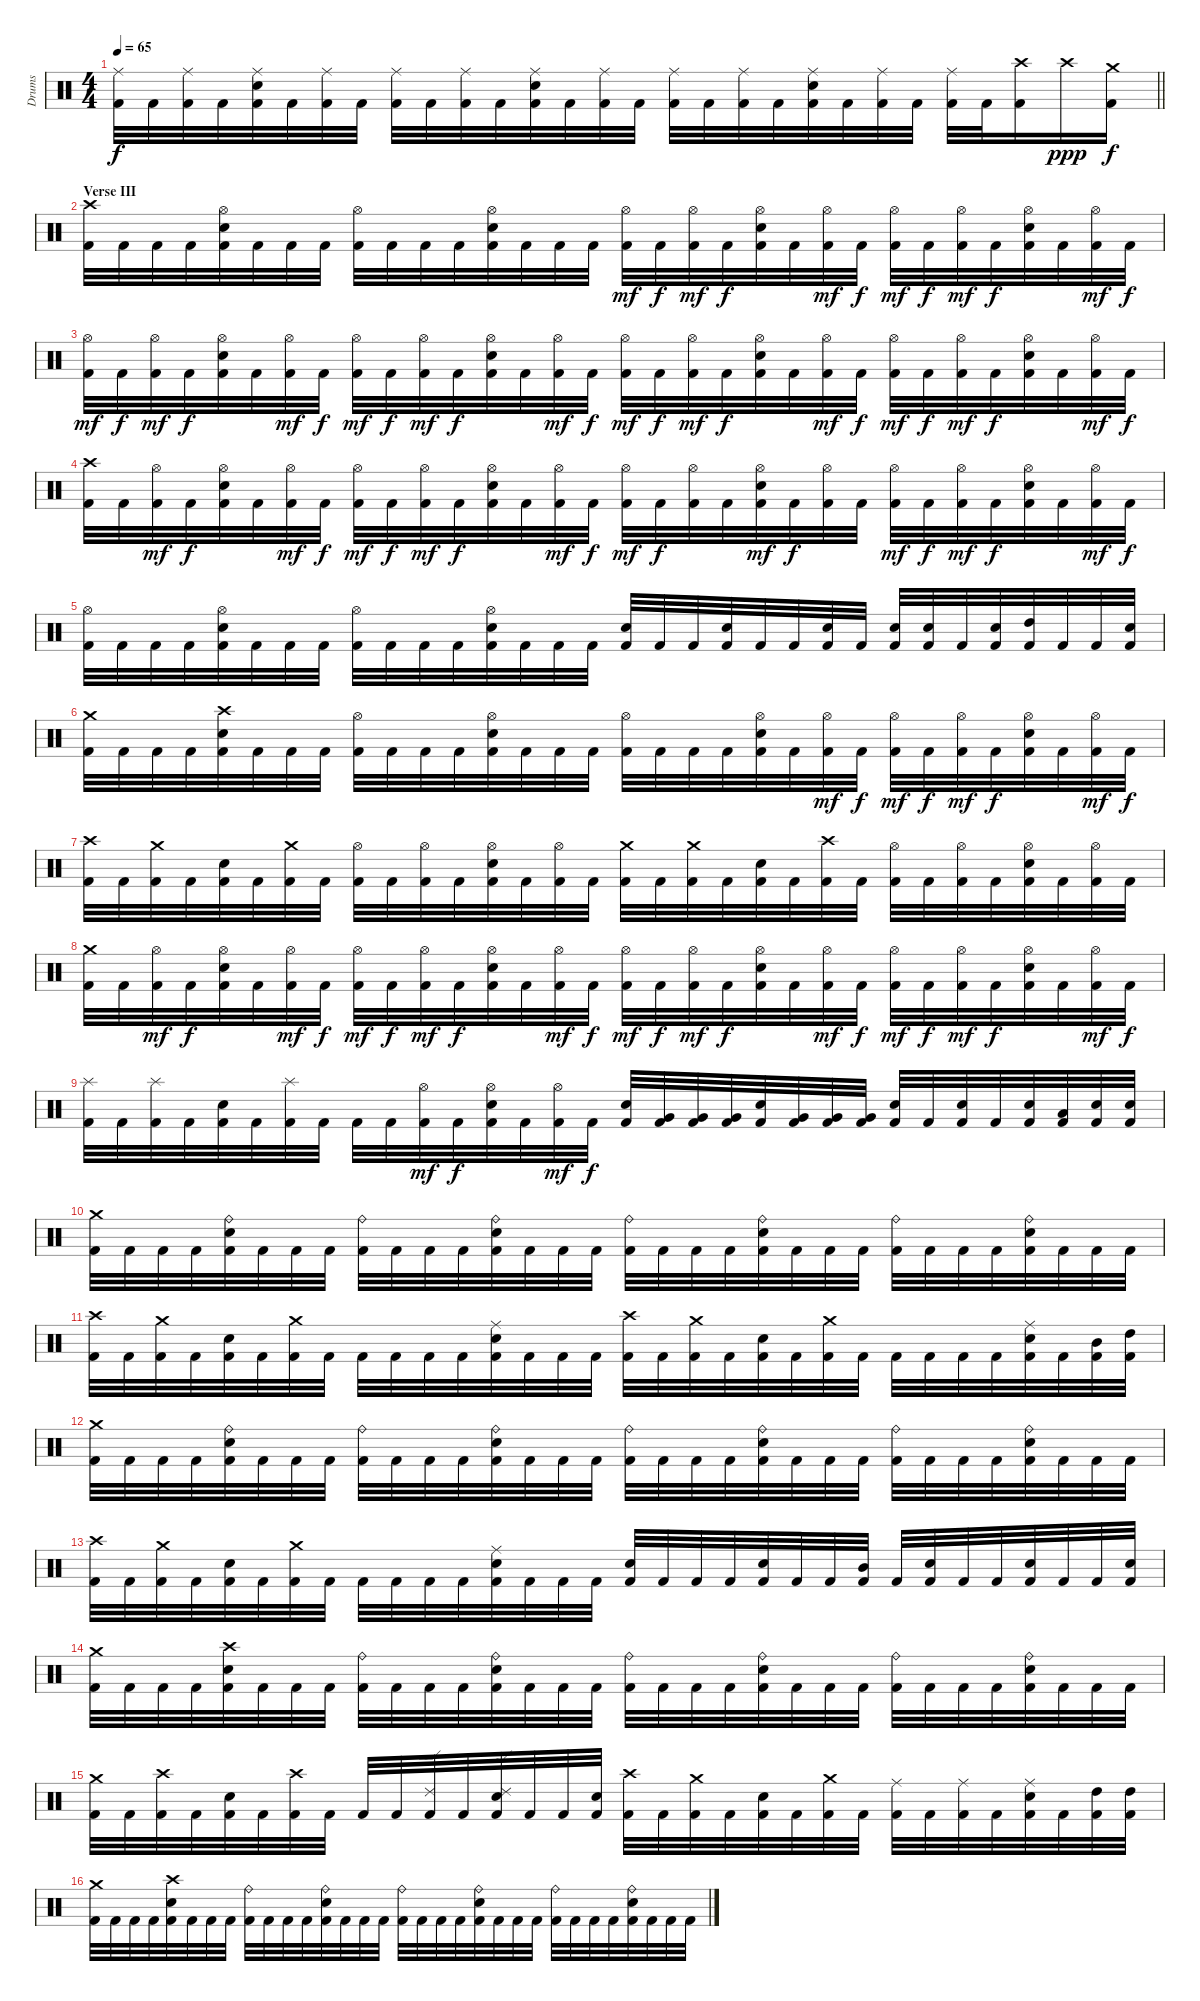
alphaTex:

\track ("Drums" "Drums") {instrument percussion}
\staff {score}
\articulation defaults
\ts (4 4)
\tempo 65
\clef neutral
\barLineRight lightlight
\ks c
("Ride (middle)" "Kick (hit) 2").32{dy f} "Kick (hit) 2".32 ("Ride (middle)" "Kick (hit) 2").32 "Kick (hit) 2".32 ("Ride (middle)" "Electric Snare (hit)" "Kick (hit) 2").32 "Kick (hit) 2".32 ("Ride (middle)" "Kick (hit) 2").32 "Kick (hit) 2".32 ("Ride (middle)" "Kick (hit) 2").32 "Kick (hit) 2".32 ("Ride (middle)" "Kick (hit) 2").32 "Kick (hit) 2".32 ("Ride (middle)" "Electric Snare (hit)" "Kick (hit) 2").32 "Kick (hit) 2".32 ("Ride (middle)" "Kick (hit) 2").32 "Kick (hit) 2".32 ("Ride (middle)" "Kick (hit) 2").32 "Kick (hit) 2".32 ("Ride (middle)" "Kick (hit) 2").32 "Kick (hit) 2".32 ("Ride (middle)" "Electric Snare (hit)" "Kick (hit) 2").32 "Kick (hit) 2".32 ("Ride (middle)" "Kick (hit) 2").32 "Kick (hit) 2".32 ("Ride (middle)" "Kick (hit) 2").32 "Kick (hit) 2".32 ("Crash high (hit)" "Kick (hit) 2").16 "Crash high (hit)".16{dy ppp} ("Crash medium (hit)" "Kick (hit) 2").16{dy f} |
\section ("" "Verse III")
("Crash high (hit)" "Kick (hit) 2").32 "Kick (hit) 2".32 "Kick (hit) 2".32 "Kick (hit) 2".32 ("Hi-Hat (open)" "Electric Snare (hit)" "Kick (hit) 2").32 "Kick (hit) 2".32 "Kick (hit) 2".32 "Kick (hit) 2".32 ("Hi-Hat (open)" "Kick (hit) 2").32 "Kick (hit) 2".32 "Kick (hit) 2".32 "Kick (hit) 2".32 ("Hi-Hat (open)" "Electric Snare (hit)" "Kick (hit) 2").32 "Kick (hit) 2".32 "Kick (hit) 2".32 "Kick (hit) 2".32 ("Hi-Hat (open)" "Kick (hit) 2").32{dy mf} "Kick (hit) 2".32{dy f} ("Hi-Hat (open)" "Kick (hit) 2").32{dy mf} "Kick (hit) 2".32{dy f} ("Hi-Hat (open)" "Electric Snare (hit)" "Kick (hit) 2").32 "Kick (hit) 2".32 ("Hi-Hat (open)" "Kick (hit) 2").32{dy mf} "Kick (hit) 2".32{dy f} ("Hi-Hat (open)" "Kick (hit) 2").32{dy mf} "Kick (hit) 2".32{dy f} ("Hi-Hat (open)" "Kick (hit) 2").32{dy mf} "Kick (hit) 2".32{dy f} ("Hi-Hat (open)" "Electric Snare (hit)" "Kick (hit) 2").32 "Kick (hit) 2".32 ("Hi-Hat (open)" "Kick (hit) 2").32{dy mf} "Kick (hit) 2".32{dy f} |
("Hi-Hat (open)" "Kick (hit) 2").32{dy mf} "Kick (hit) 2".32{dy f} ("Hi-Hat (open)" "Kick (hit) 2").32{dy mf} "Kick (hit) 2".32{dy f} ("Hi-Hat (open)" "Electric Snare (hit)" "Kick (hit) 2").32 "Kick (hit) 2".32 ("Hi-Hat (open)" "Kick (hit) 2").32{dy mf} "Kick (hit) 2".32{dy f} ("Hi-Hat (open)" "Kick (hit) 2").32{dy mf} "Kick (hit) 2".32{dy f} ("Hi-Hat (open)" "Kick (hit) 2").32{dy mf} "Kick (hit) 2".32{dy f} ("Hi-Hat (open)" "Electric Snare (hit)" "Kick (hit) 2").32 "Kick (hit) 2".32 ("Hi-Hat (open)" "Kick (hit) 2").32{dy mf} "Kick (hit) 2".32{dy f} ("Hi-Hat (open)" "Kick (hit) 2").32{dy mf} "Kick (hit) 2".32{dy f} ("Hi-Hat (open)" "Kick (hit) 2").32{dy mf} "Kick (hit) 2".32{dy f} ("Hi-Hat (open)" "Electric Snare (hit)" "Kick (hit) 2").32 "Kick (hit) 2".32 ("Hi-Hat (open)" "Kick (hit) 2").32{dy mf} "Kick (hit) 2".32{dy f} ("Hi-Hat (open)" "Kick (hit) 2").32{dy mf} "Kick (hit) 2".32{dy f} ("Hi-Hat (open)" "Kick (hit) 2").32{dy mf} "Kick (hit) 2".32{dy f} ("Hi-Hat (open)" "Electric Snare (hit)" "Kick (hit) 2").32 "Kick (hit) 2".32 ("Hi-Hat (open)" "Kick (hit) 2").32{dy mf} "Kick (hit) 2".32{dy f} |
("Crash high (hit)" "Kick (hit) 2").32 "Kick (hit) 2".32 ("Hi-Hat (open)" "Kick (hit) 2").32{dy mf} "Kick (hit) 2".32{dy f} ("Hi-Hat (open)" "Electric Snare (hit)" "Kick (hit) 2").32 "Kick (hit) 2".32 ("Hi-Hat (open)" "Kick (hit) 2").32{dy mf} "Kick (hit) 2".32{dy f} ("Hi-Hat (open)" "Kick (hit) 2").32{dy mf} "Kick (hit) 2".32{dy f} ("Hi-Hat (open)" "Kick (hit) 2").32{dy mf} "Kick (hit) 2".32{dy f} ("Hi-Hat (open)" "Electric Snare (hit)" "Kick (hit) 2").32 "Kick (hit) 2".32 ("Hi-Hat (open)" "Kick (hit) 2").32{dy mf} "Kick (hit) 2".32{dy f} ("Hi-Hat (open)" "Kick (hit) 2").32{dy mf} "Kick (hit) 2".32{dy f} ("Hi-Hat (open)" "Kick (hit) 2").32 "Kick (hit) 2".32 ("Hi-Hat (open)" "Electric Snare (hit)" "Kick (hit) 2").32{dy mf} "Kick (hit) 2".32{dy f} ("Hi-Hat (open)" "Kick (hit) 2").32 "Kick (hit) 2".32 ("Hi-Hat (open)" "Kick (hit) 2").32{dy mf} "Kick (hit) 2".32{dy f} ("Hi-Hat (open)" "Kick (hit) 2").32{dy mf} "Kick (hit) 2".32{dy f} ("Hi-Hat (open)" "Electric Snare (hit)" "Kick (hit) 2").32 "Kick (hit) 2".32 ("Hi-Hat (open)" "Kick (hit) 2").32{dy mf} "Kick (hit) 2".32{dy f} |
("Hi-Hat (open)" "Kick (hit) 2").32 "Kick (hit) 2".32 "Kick (hit) 2".32 "Kick (hit) 2".32 ("Hi-Hat (open)" "Electric Snare (hit)" "Kick (hit) 2").32 "Kick (hit) 2".32 "Kick (hit) 2".32 "Kick (hit) 2".32 ("Hi-Hat (open)" "Kick (hit) 2").32 "Kick (hit) 2".32 "Kick (hit) 2".32 "Kick (hit) 2".32 ("Hi-Hat (open)" "Electric Snare (hit)" "Kick (hit) 2").32 "Kick (hit) 2".32 "Kick (hit) 2".32 "Kick (hit) 2".32 ("Electric Snare (hit)" "Kick (hit) 2").32 "Kick (hit) 2".32 "Kick (hit) 2".32 ("Electric Snare (hit)" "Kick (hit) 2").32 "Kick (hit) 2".32 "Kick (hit) 2".32 ("Electric Snare (hit)" "Kick (hit) 2").32 "Kick (hit) 2".32 ("Electric Snare (hit)" "Kick (hit) 2").32 ("Electric Snare (hit)" "Kick (hit) 2").32 "Kick (hit) 2".32 ("Electric Snare (hit)" "Kick (hit) 2").32 ("High Tom (hit)" "Kick (hit) 2").32 "Kick (hit) 2".32 "Kick (hit) 2".32 ("Electric Snare (hit)" "Kick (hit) 2").32 |
("Crash medium (hit)" "Kick (hit) 2").32 "Kick (hit) 2".32 "Kick (hit) 2".32 "Kick (hit) 2".32 ("Crash high (hit)" "Electric Snare (hit)" "Kick (hit) 2").32 "Kick (hit) 2".32 "Kick (hit) 2".32 "Kick (hit) 2".32 ("Hi-Hat (open)" "Kick (hit) 2").32 "Kick (hit) 2".32 "Kick (hit) 2".32 "Kick (hit) 2".32 ("Hi-Hat (open)" "Electric Snare (hit)" "Kick (hit) 2").32 "Kick (hit) 2".32 "Kick (hit) 2".32 "Kick (hit) 2".32 ("Hi-Hat (open)" "Kick (hit) 2").32 "Kick (hit) 2".32 "Kick (hit) 2".32 "Kick (hit) 2".32 ("Hi-Hat (open)" "Electric Snare (hit)" "Kick (hit) 2").32 "Kick (hit) 2".32 ("Hi-Hat (open)" "Kick (hit) 2").32{dy mf} "Kick (hit) 2".32{dy f} ("Hi-Hat (open)" "Kick (hit) 2").32{dy mf} "Kick (hit) 2".32{dy f} ("Hi-Hat (open)" "Kick (hit) 2").32{dy mf} "Kick (hit) 2".32{dy f} ("Hi-Hat (open)" "Electric Snare (hit)" "Kick (hit) 2").32 "Kick (hit) 2".32 ("Hi-Hat (open)" "Kick (hit) 2").32{dy mf} "Kick (hit) 2".32{dy f} |
("Crash high (hit)" "Kick (hit) 2").32 "Kick (hit) 2".32 ("Crash medium (hit)" "Kick (hit) 2").32 "Kick (hit) 2".32 ("Electric Snare (hit)" "Kick (hit) 2").32 "Kick (hit) 2".32 ("Crash medium (hit)" "Kick (hit) 2").32 "Kick (hit) 2".32 ("Hi-Hat (open)" "Kick (hit) 2").32 "Kick (hit) 2".32 ("Hi-Hat (open)" "Kick (hit) 2").32 "Kick (hit) 2".32 ("Hi-Hat (open)" "Electric Snare (hit)" "Kick (hit) 2").32 "Kick (hit) 2".32 ("Hi-Hat (open)" "Kick (hit) 2").32 "Kick (hit) 2".32 ("Crash medium (hit)" "Kick (hit) 2").32 "Kick (hit) 2".32 ("Crash medium (hit)" "Kick (hit) 2").32 "Kick (hit) 2".32 ("Electric Snare (hit)" "Kick (hit) 2").32 "Kick (hit) 2".32 ("Crash high (hit)" "Kick (hit) 2").32 "Kick (hit) 2".32 ("Hi-Hat (open)" "Kick (hit) 2").32 "Kick (hit) 2".32 ("Hi-Hat (open)" "Kick (hit) 2").32 "Kick (hit) 2".32 ("Hi-Hat (open)" "Electric Snare (hit)" "Kick (hit) 2").32 "Kick (hit) 2".32 ("Hi-Hat (open)" "Kick (hit) 2").32 "Kick (hit) 2".32 |
("Crash medium (hit)" "Kick (hit) 2").32 "Kick (hit) 2".32 ("Hi-Hat (open)" "Kick (hit) 2").32{dy mf} "Kick (hit) 2".32{dy f} ("Hi-Hat (open)" "Electric Snare (hit)" "Kick (hit) 2").32 "Kick (hit) 2".32 ("Hi-Hat (open)" "Kick (hit) 2").32{dy mf} "Kick (hit) 2".32{dy f} ("Hi-Hat (open)" "Kick (hit) 2").32{dy mf} "Kick (hit) 2".32{dy f} ("Hi-Hat (open)" "Kick (hit) 2").32{dy mf} "Kick (hit) 2".32{dy f} ("Hi-Hat (open)" "Electric Snare (hit)" "Kick (hit) 2").32 "Kick (hit) 2".32 ("Hi-Hat (open)" "Kick (hit) 2").32{dy mf} "Kick (hit) 2".32{dy f} ("Hi-Hat (open)" "Kick (hit) 2").32{dy mf} "Kick (hit) 2".32{dy f} ("Hi-Hat (open)" "Kick (hit) 2").32{dy mf} "Kick (hit) 2".32{dy f} ("Hi-Hat (open)" "Electric Snare (hit)" "Kick (hit) 2").32 "Kick (hit) 2".32 ("Hi-Hat (open)" "Kick (hit) 2").32{dy mf} "Kick (hit) 2".32{dy f} ("Hi-Hat (open)" "Kick (hit) 2").32{dy mf} "Kick (hit) 2".32{dy f} ("Hi-Hat (open)" "Kick (hit) 2").32{dy mf} "Kick (hit) 2".32{dy f} ("Hi-Hat (open)" "Electric Snare (hit)" "Kick (hit) 2").32 "Kick (hit) 2".32 ("Hi-Hat (open)" "Kick (hit) 2").32{dy mf} "Kick (hit) 2".32{dy f} |
("Splash (hit)" "Kick (hit) 2").32 "Kick (hit) 2".32 ("Splash (hit)" "Kick (hit) 2").32 "Kick (hit) 2".32 ("Electric Snare (hit)" "Kick (hit) 2").32 "Kick (hit) 2".32 ("Splash (hit)" "Kick (hit) 2").32 "Kick (hit) 2".32 "Kick (hit) 2".32 "Kick (hit) 2".32 ("Hi-Hat (open)" "Kick (hit) 2").32{dy mf} "Kick (hit) 2".32{dy f} ("Hi-Hat (open)" "Electric Snare (hit)" "Kick (hit) 2").32 "Kick (hit) 2".32 ("Hi-Hat (open)" "Kick (hit) 2").32{dy mf} "Kick (hit) 2".32{dy f} ("Electric Snare (hit)" "Kick (hit) 2").32 ("Very Low Tom (hit)" "Kick (hit) 2").32 ("Very Low Tom (hit)" "Kick (hit) 2").32 ("Very Low Tom (hit)" "Kick (hit) 2").32 ("Electric Snare (hit)" "Kick (hit) 2").32 ("Very Low Tom (hit)" "Kick (hit) 2").32 ("Very Low Tom (hit)" "Kick (hit) 2").32 ("Very Low Tom (hit)" "Kick (hit) 2").32 ("Electric Snare (hit)" "Kick (hit) 2").32 "Kick (hit) 2".32 ("Electric Snare (hit)" "Kick (hit) 2").32 "Kick (hit) 2".32 ("Electric Snare (hit)" "Kick (hit) 2").32 ("Low Tom (hit)" "Kick (hit) 2").32 ("Electric Snare (hit)" "Kick (hit) 2").32 ("Electric Snare (hit)" "Kick (hit) 2").32 |
("Crash medium (hit)" "Kick (hit) 2").32 "Kick (hit) 2".32 "Kick (hit) 2".32 "Kick (hit) 2".32 ("Ride (bell)" "Electric Snare (hit)" "Kick (hit) 2").32 "Kick (hit) 2".32 "Kick (hit) 2".32 "Kick (hit) 2".32 ("Ride (bell)" "Kick (hit) 2").32 "Kick (hit) 2".32 "Kick (hit) 2".32 "Kick (hit) 2".32 ("Ride (bell)" "Electric Snare (hit)" "Kick (hit) 2").32 "Kick (hit) 2".32 "Kick (hit) 2".32 "Kick (hit) 2".32 ("Ride (bell)" "Kick (hit) 2").32 "Kick (hit) 2".32 "Kick (hit) 2".32 "Kick (hit) 2".32 ("Ride (bell)" "Electric Snare (hit)" "Kick (hit) 2").32 "Kick (hit) 2".32 "Kick (hit) 2".32 "Kick (hit) 2".32 ("Ride (bell)" "Kick (hit) 2").32 "Kick (hit) 2".32 "Kick (hit) 2".32 "Kick (hit) 2".32 ("Ride (bell)" "Electric Snare (hit)" "Kick (hit) 2").32 "Kick (hit) 2".32 "Kick (hit) 2".32 "Kick (hit) 2".32 |
("Crash high (hit)" "Kick (hit) 2").32 "Kick (hit) 2".32 ("Crash medium (hit)" "Kick (hit) 2").32 "Kick (hit) 2".32 ("Electric Snare (hit)" "Kick (hit) 2").32 "Kick (hit) 2".32 ("Crash medium (hit)" "Kick (hit) 2").32 "Kick (hit) 2".32 "Kick (hit) 2".32 "Kick (hit) 2".32 "Kick (hit) 2".32 "Kick (hit) 2".32 ("Ride (middle)" "Electric Snare (hit)" "Kick (hit) 2").32 "Kick (hit) 2".32 "Kick (hit) 2".32 "Kick (hit) 2".32 ("Crash high (hit)" "Kick (hit) 2").32 "Kick (hit) 2".32 ("Crash medium (hit)" "Kick (hit) 2").32 "Kick (hit) 2".32 ("Electric Snare (hit)" "Kick (hit) 2").32 "Kick (hit) 2".32 ("Crash medium (hit)" "Kick (hit) 2").32 "Kick (hit) 2".32 "Kick (hit) 2".32 "Kick (hit) 2".32 "Kick (hit) 2".32 "Kick (hit) 2".32 ("Ride (middle)" "Electric Snare (hit)" "Kick (hit) 2").32 "Kick (hit) 2".32 ("Mid Tom (hit)" "Kick (hit) 2").32 ("High Tom (hit)" "Kick (hit) 2").32 |
("Crash medium (hit)" "Kick (hit) 2").32 "Kick (hit) 2".32 "Kick (hit) 2".32 "Kick (hit) 2".32 ("Ride (bell)" "Electric Snare (hit)" "Kick (hit) 2").32 "Kick (hit) 2".32 "Kick (hit) 2".32 "Kick (hit) 2".32 ("Ride (bell)" "Kick (hit) 2").32 "Kick (hit) 2".32 "Kick (hit) 2".32 "Kick (hit) 2".32 ("Ride (bell)" "Electric Snare (hit)" "Kick (hit) 2").32 "Kick (hit) 2".32 "Kick (hit) 2".32 "Kick (hit) 2".32 ("Ride (bell)" "Kick (hit) 2").32 "Kick (hit) 2".32 "Kick (hit) 2".32 "Kick (hit) 2".32 ("Ride (bell)" "Electric Snare (hit)" "Kick (hit) 2").32 "Kick (hit) 2".32 "Kick (hit) 2".32 "Kick (hit) 2".32 ("Ride (bell)" "Kick (hit) 2").32 "Kick (hit) 2".32 "Kick (hit) 2".32 "Kick (hit) 2".32 ("Ride (bell)" "Electric Snare (hit)" "Kick (hit) 2").32 "Kick (hit) 2".32 "Kick (hit) 2".32 "Kick (hit) 2".32 |
("Crash high (hit)" "Kick (hit) 2").32 "Kick (hit) 2".32 ("Crash medium (hit)" "Kick (hit) 2").32 "Kick (hit) 2".32 ("Electric Snare (hit)" "Kick (hit) 2").32 "Kick (hit) 2".32 ("Crash medium (hit)" "Kick (hit) 2").32 "Kick (hit) 2".32 "Kick (hit) 2".32 "Kick (hit) 2".32 "Kick (hit) 2".32 "Kick (hit) 2".32 ("Ride (middle)" "Electric Snare (hit)" "Kick (hit) 2").32 "Kick (hit) 2".32 "Kick (hit) 2".32 "Kick (hit) 2".32 ("Electric Snare (hit)" "Kick (hit) 2").32 "Kick (hit) 2".32 "Kick (hit) 2".32 "Kick (hit) 2".32 ("Electric Snare (hit)" "Kick (hit) 2").32 "Kick (hit) 2".32 "Kick (hit) 2".32 ("Mid Tom (hit)" "Kick (hit) 2").32 "Kick (hit) 2".32 ("Electric Snare (hit)" "Kick (hit) 2").32 "Kick (hit) 2".32 "Kick (hit) 2".32 ("Electric Snare (hit)" "Kick (hit) 2").32 "Kick (hit) 2".32 "Kick (hit) 2".32 ("Electric Snare (hit)" "Kick (hit) 2").32 |
("Crash medium (hit)" "Kick (hit) 2").32 "Kick (hit) 2".32 "Kick (hit) 2".32 "Kick (hit) 2".32 ("Crash high (hit)" "Electric Snare (hit)" "Kick (hit) 2").32 "Kick (hit) 2".32 "Kick (hit) 2".32 "Kick (hit) 2".32 ("Ride (bell)" "Kick (hit) 2").32 "Kick (hit) 2".32 "Kick (hit) 2".32 "Kick (hit) 2".32 ("Ride (bell)" "Electric Snare (hit)" "Kick (hit) 2").32 "Kick (hit) 2".32 "Kick (hit) 2".32 "Kick (hit) 2".32 ("Ride (bell)" "Kick (hit) 2").32 "Kick (hit) 2".32 "Kick (hit) 2".32 "Kick (hit) 2".32 ("Ride (bell)" "Electric Snare (hit)" "Kick (hit) 2").32 "Kick (hit) 2".32 "Kick (hit) 2".32 "Kick (hit) 2".32 ("Ride (bell)" "Kick (hit) 2").32 "Kick (hit) 2".32 "Kick (hit) 2".32 "Kick (hit) 2".32 ("Ride (bell)" "Electric Snare (hit)" "Kick (hit) 2").32 "Kick (hit) 2".32 "Kick (hit) 2".32 "Kick (hit) 2".32 |
("Crash medium (hit)" "Kick (hit) 2").32 "Kick (hit) 2".32 ("Crash high (hit)" "Kick (hit) 2").32 "Kick (hit) 2".32 ("Electric Snare (hit)" "Kick (hit) 2").32 "Kick (hit) 2".32 ("Crash high (hit)" "Kick (hit) 2").32 "Kick (hit) 2".32 "Kick (hit) 2".32 "Kick (hit) 2".32 ("Ride (edge) 2" "Kick (hit) 2").32 "Kick (hit) 2".32 ("Ride (edge) 2" "Electric Snare (hit)" "Kick (hit) 2").32 "Kick (hit) 2".32 "Kick (hit) 2".32 ("Electric Snare (hit)" "Kick (hit) 2").32 ("Crash high (hit)" "Kick (hit) 2").32 "Kick (hit) 2".32 ("Crash medium (hit)" "Kick (hit) 2").32 "Kick (hit) 2".32 ("Electric Snare (hit)" "Kick (hit) 2").32 "Kick (hit) 2".32 ("Crash medium (hit)" "Kick (hit) 2").32 "Kick (hit) 2".32 ("Ride (middle)" "Kick (hit) 2").32 "Kick (hit) 2".32 ("Ride (middle)" "Kick (hit) 2").32 "Kick (hit) 2".32 ("Ride (middle)" "Electric Snare (hit)" "Kick (hit) 2").32 "Kick (hit) 2".32 ("High Tom (hit)" "Kick (hit) 2").32 ("High Tom (hit)" "Kick (hit) 2").32 |
("Crash medium (hit)" "Kick (hit) 2").32 "Kick (hit) 2".32 "Kick (hit) 2".32 "Kick (hit) 2".32 ("Crash high (hit)" "Electric Snare (hit)" "Kick (hit) 2").32 "Kick (hit) 2".32 "Kick (hit) 2".32 "Kick (hit) 2".32 ("Ride (bell)" "Kick (hit) 2").32 "Kick (hit) 2".32 "Kick (hit) 2".32 "Kick (hit) 2".32 ("Ride (bell)" "Electric Snare (hit)" "Kick (hit) 2").32 "Kick (hit) 2".32 "Kick (hit) 2".32 "Kick (hit) 2".32 ("Ride (bell)" "Kick (hit) 2").32 "Kick (hit) 2".32 "Kick (hit) 2".32 "Kick (hit) 2".32 ("Ride (bell)" "Electric Snare (hit)" "Kick (hit) 2").32 "Kick (hit) 2".32 "Kick (hit) 2".32 "Kick (hit) 2".32 ("Ride (bell)" "Kick (hit) 2").32 "Kick (hit) 2".32 "Kick (hit) 2".32 "Kick (hit) 2".32 ("Ride (bell)" "Electric Snare (hit)" "Kick (hit) 2").32 "Kick (hit) 2".32 "Kick (hit) 2".32 "Kick (hit) 2".32
